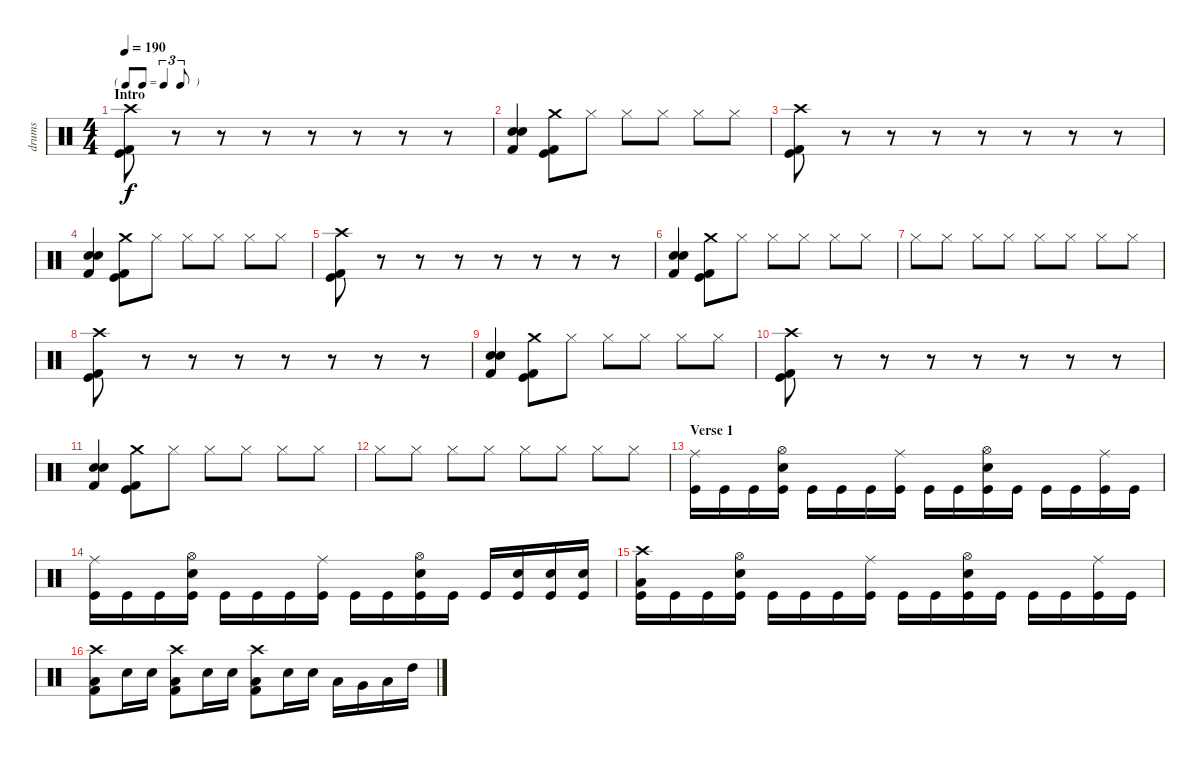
\track ("drums" "drums") {instrument percussion}
\staff {score}
\articulation defaults
\ts (4 4)
\tf triplet8th
\section ("" "Intro")
\tempo 190
\clef neutral
\ks c
("Crash high (hit)" "Kick (hit) 2" "Kick (hit)").8{dy f} r.8 r.8 r.8 r.8 r.8 r.8 r.8 |
("Electric Snare (hit)" "Snare (hit) 2" "Kick (hit) 2").4 ("Crash medium (hit)" "Kick (hit) 2" "Kick (hit)").8 "Hi-Hat (closed)".8 "Hi-Hat (closed)".8 "Hi-Hat (closed)".8 "Hi-Hat (closed)".8 "Hi-Hat (closed)".8 |
("Crash high (hit)" "Kick (hit) 2" "Kick (hit)").8 r.8 r.8 r.8 r.8 r.8 r.8 r.8 |
("Electric Snare (hit)" "Snare (hit) 2" "Kick (hit) 2").4 ("Crash medium (hit)" "Kick (hit) 2" "Kick (hit)").8 "Hi-Hat (closed)".8 "Hi-Hat (closed)".8 "Hi-Hat (closed)".8 "Hi-Hat (closed)".8 "Hi-Hat (closed)".8 |
("Crash high (hit)" "Kick (hit) 2" "Kick (hit)").8 r.8 r.8 r.8 r.8 r.8 r.8 r.8 |
("Electric Snare (hit)" "Snare (hit) 2" "Kick (hit) 2").4 ("Crash medium (hit)" "Kick (hit) 2" "Kick (hit)").8 "Hi-Hat (closed)".8 "Hi-Hat (closed)".8 "Hi-Hat (closed)".8 "Hi-Hat (closed)".8 "Hi-Hat (closed)".8 |
"Hi-Hat (closed)".8 "Hi-Hat (closed)".8 "Hi-Hat (closed)".8 "Hi-Hat (closed)".8 "Hi-Hat (closed)".8 "Hi-Hat (closed)".8 "Hi-Hat (closed)".8 "Hi-Hat (closed)".8 |
("Crash high (hit)" "Kick (hit) 2" "Kick (hit)").8 r.8 r.8 r.8 r.8 r.8 r.8 r.8 |
("Electric Snare (hit)" "Snare (hit) 2" "Kick (hit) 2").4 ("Crash medium (hit)" "Kick (hit) 2" "Kick (hit)").8 "Hi-Hat (closed)".8 "Hi-Hat (closed)".8 "Hi-Hat (closed)".8 "Hi-Hat (closed)".8 "Hi-Hat (closed)".8 |
("Crash high (hit)" "Kick (hit) 2" "Kick (hit)").8 r.8 r.8 r.8 r.8 r.8 r.8 r.8 |
("Electric Snare (hit)" "Snare (hit) 2" "Kick (hit) 2").4 ("Crash medium (hit)" "Kick (hit) 2" "Kick (hit)").8 "Hi-Hat (closed)".8 "Hi-Hat (closed)".8 "Hi-Hat (closed)".8 "Hi-Hat (closed)".8 "Hi-Hat (closed)".8 |
"Hi-Hat (closed)".8 "Hi-Hat (closed)".8 "Hi-Hat (closed)".8 "Hi-Hat (closed)".8 "Hi-Hat (closed)".8 "Hi-Hat (closed)".8 "Hi-Hat (closed)".8 "Hi-Hat (closed)".8 |
\section ("" "Verse 1")
("Ride (middle)" "Kick (hit)").16 "Kick (hit)".16 "Kick (hit)".16 ("Hi-Hat (open)" "Electric Snare (hit)" "Kick (hit)").16 "Kick (hit)".16 "Kick (hit)".16 "Kick (hit)".16 ("Ride (middle)" "Kick (hit)").16 "Kick (hit)".16 "Kick (hit)".16 ("Hi-Hat (open)" "Electric Snare (hit)" "Kick (hit)").16 "Kick (hit)".16 "Kick (hit)".16 "Kick (hit)".16 ("Ride (middle)" "Kick (hit)").16 "Kick (hit)".16 |
("Ride (middle)" "Kick (hit)").16 "Kick (hit)".16 "Kick (hit)".16 ("Hi-Hat (open)" "Electric Snare (hit)" "Kick (hit)").16 "Kick (hit)".16 "Kick (hit)".16 "Kick (hit)".16 ("Ride (middle)" "Kick (hit)").16 "Kick (hit)".16 "Kick (hit)".16 ("Hi-Hat (open)" "Electric Snare (hit)" "Kick (hit)").16 "Kick (hit)".16 "Kick (hit)".16 ("Snare (hit) 2" "Kick (hit)").16 ("Snare (hit) 2" "Kick (hit)").16 ("Snare (hit) 2" "Kick (hit)").16 |
("Crash high (hit)" "Low Tom (hit)" "Kick (hit)").16 "Kick (hit)".16 "Kick (hit)".16 ("Hi-Hat (open)" "Electric Snare (hit)" "Kick (hit)").16 "Kick (hit)".16 "Kick (hit)".16 "Kick (hit)".16 ("Ride (middle)" "Kick (hit)").16 "Kick (hit)".16 "Kick (hit)".16 ("Hi-Hat (open)" "Electric Snare (hit)" "Kick (hit)").16 "Kick (hit)".16 "Kick (hit)".16 "Kick (hit)".16 ("Ride (middle)" "Kick (hit)").16 "Kick (hit)".16 |
("Crash high (hit)" "Low Floor Tom (hit)" "Kick (hit) 2").8 "Snare (hit) 2".16 "Snare (hit) 2".16 ("Crash high (hit)" "Low Floor Tom (hit)" "Kick (hit) 2").8 "Snare (hit) 2".16 "Snare (hit) 2".16 ("Crash high (hit)" "Low Floor Tom (hit)" "Kick (hit) 2").8 "Snare (hit) 2".16 "Snare (hit) 2".16 "Low Floor Tom (hit)".16 "Very Low Tom (hit)".16 "Low Tom (hit)".16 "High Tom (hit)".16
